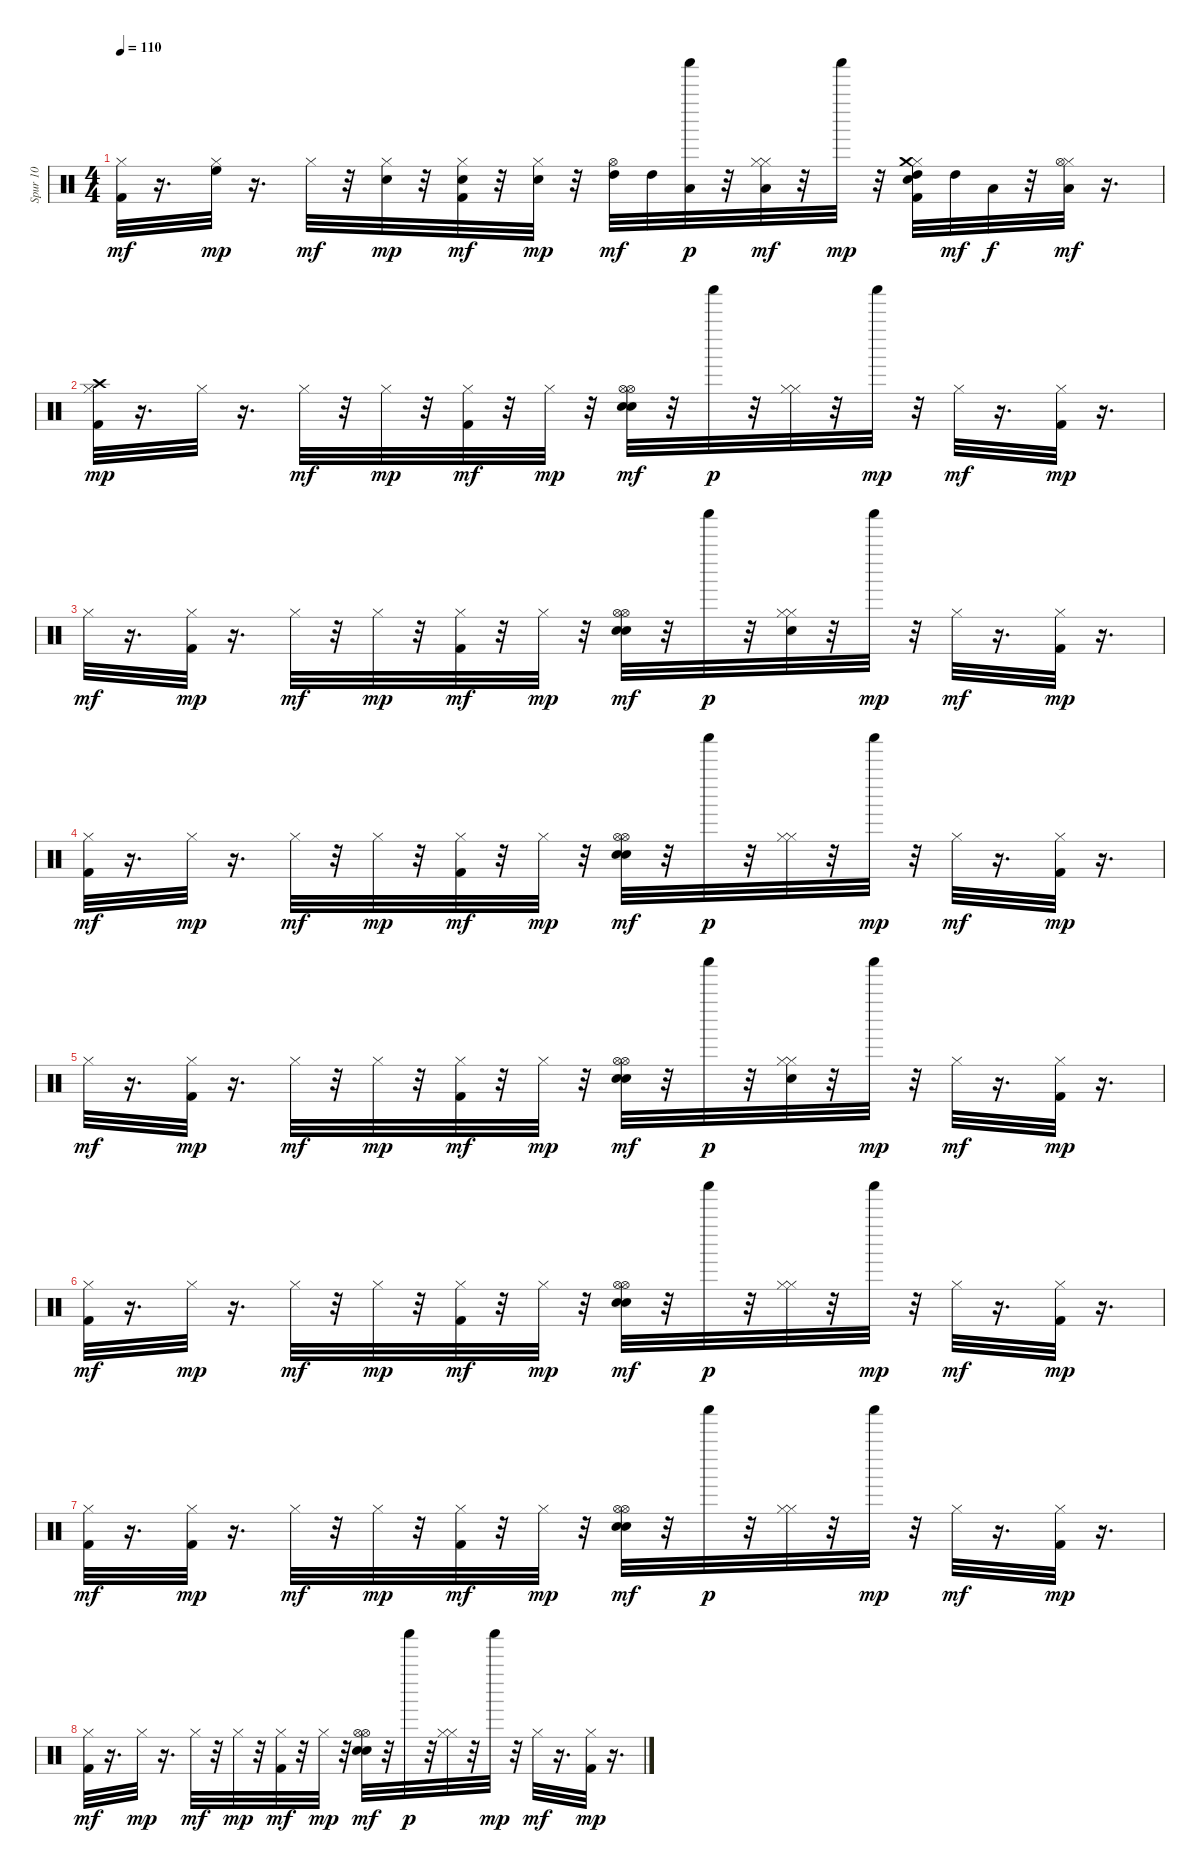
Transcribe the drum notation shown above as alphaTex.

\track ("Spur 10" "Spur 10") {instrument percussion}
\staff {score}
\articulation defaults
\ts (4 4)
\tempo 110
\clef neutral
\ks c
("Kick (hit) 2" "Hi-Hat (closed)").32{dy mf} r.16{d} ("Hi-Hat (closed)" "High Floor Tom (hit)").32{dy mp} r.16{d} "Hi-Hat (closed)".32{dy mf} r.32 ("Snare (hit) 2" "Hi-Hat (closed)").32{dy mp} r.32 ("Kick (hit) 2" "Snare (hit) 2" "Hi-Hat (closed)").32{dy mf} r.32 ("Snare (hit) 2" "Hi-Hat (closed)").32{dy mp} r.32 ("Hi-Hat (open)" "High Tom (hit)").32{dy mf} "High Tom (hit)".32 ("Low Tom (hit)" "Shaker (hit)").32{dy p} r.32 ("Hi-Hat (closed)" "Hi-Hat (closed)" "Low Floor Tom (hit)").32{dy mf} r.32 "Shaker (hit)".32{dy mp} r.32 ("Kick (hit) 2" "Snare (hit) 2" "Hi-Hat (closed)" "Crash medium (hit)" "High Tom (hit)").32 "High Tom (hit)".32{dy mf} "Low Tom (hit)".32{dy f} r.32 ("Hi-Hat (closed)" "Hi-Hat (open)" "Low Floor Tom (hit)").32{dy mf} r.16{d} |
("Kick (hit) 2" "Hi-Hat (closed)" "Crash high (hit)").32{dy mp} r.16{d} "Hi-Hat (closed)".32 r.16{d} "Hi-Hat (closed)".32{dy mf} r.32 "Hi-Hat (closed)".32{dy mp} r.32 ("Kick (hit) 2" "Hi-Hat (closed)").32{dy mf} r.32 "Hi-Hat (closed)".32{dy mp} r.32 ("Hi-Hat (open)" "Snare (hit) 2" "Electric Snare (hit)" "Hi-Hat (open)").32{dy mf} r.32 "Shaker (hit)".32{dy p} r.32 ("Hi-Hat (closed)" "Hi-Hat (closed)").32 r.32 "Shaker (hit)".32{dy mp} r.32 "Hi-Hat (closed)".32{dy mf} r.16{d} ("Kick (hit) 2" "Hi-Hat (closed)").32{dy mp} r.16{d} |
"Hi-Hat (closed)".32{dy mf} r.16{d} ("Kick (hit) 2" "Hi-Hat (closed)").32{dy mp} r.16{d} "Hi-Hat (closed)".32{dy mf} r.32 "Hi-Hat (closed)".32{dy mp} r.32 ("Kick (hit) 2" "Hi-Hat (closed)").32{dy mf} r.32 "Hi-Hat (closed)".32{dy mp} r.32 ("Hi-Hat (open)" "Snare (hit) 2" "Electric Snare (hit)" "Hi-Hat (open)").32{dy mf} r.32 "Shaker (hit)".32{dy p} r.32 ("Snare (hit) 2" "Hi-Hat (closed)" "Hi-Hat (closed)").32 r.32 "Shaker (hit)".32{dy mp} r.32 "Hi-Hat (closed)".32{dy mf} r.16{d} ("Kick (hit) 2" "Hi-Hat (closed)").32{dy mp} r.16{d} |
("Kick (hit) 2" "Hi-Hat (closed)").32{dy mf} r.16{d} "Hi-Hat (closed)".32{dy mp} r.16{d} "Hi-Hat (closed)".32{dy mf} r.32 "Hi-Hat (closed)".32{dy mp} r.32 ("Kick (hit) 2" "Hi-Hat (closed)").32{dy mf} r.32 "Hi-Hat (closed)".32{dy mp} r.32 ("Hi-Hat (open)" "Snare (hit) 2" "Electric Snare (hit)" "Hi-Hat (open)").32{dy mf} r.32 "Shaker (hit)".32{dy p} r.32 ("Hi-Hat (closed)" "Hi-Hat (closed)").32 r.32 "Shaker (hit)".32{dy mp} r.32 "Hi-Hat (closed)".32{dy mf} r.16{d} ("Kick (hit) 2" "Hi-Hat (closed)").32{dy mp} r.16{d} |
"Hi-Hat (closed)".32{dy mf} r.16{d} ("Kick (hit) 2" "Hi-Hat (closed)").32{dy mp} r.16{d} "Hi-Hat (closed)".32{dy mf} r.32 "Hi-Hat (closed)".32{dy mp} r.32 ("Kick (hit) 2" "Hi-Hat (closed)").32{dy mf} r.32 "Hi-Hat (closed)".32{dy mp} r.32 ("Hi-Hat (open)" "Snare (hit) 2" "Electric Snare (hit)" "Hi-Hat (open)").32{dy mf} r.32 "Shaker (hit)".32{dy p} r.32 ("Snare (hit) 2" "Hi-Hat (closed)" "Hi-Hat (closed)").32 r.32 "Shaker (hit)".32{dy mp} r.32 "Hi-Hat (closed)".32{dy mf} r.16{d} ("Kick (hit) 2" "Hi-Hat (closed)").32{dy mp} r.16{d} |
("Kick (hit) 2" "Hi-Hat (closed)").32{dy mf} r.16{d} "Hi-Hat (closed)".32{dy mp} r.16{d} "Hi-Hat (closed)".32{dy mf} r.32 "Hi-Hat (closed)".32{dy mp} r.32 ("Kick (hit) 2" "Hi-Hat (closed)").32{dy mf} r.32 "Hi-Hat (closed)".32{dy mp} r.32 ("Hi-Hat (open)" "Snare (hit) 2" "Electric Snare (hit)" "Hi-Hat (open)").32{dy mf} r.32 "Shaker (hit)".32{dy p} r.32 ("Hi-Hat (closed)" "Hi-Hat (closed)").32 r.32 "Shaker (hit)".32{dy mp} r.32 "Hi-Hat (closed)".32{dy mf} r.16{d} ("Kick (hit) 2" "Hi-Hat (closed)").32{dy mp} r.16{d} |
("Kick (hit) 2" "Hi-Hat (closed)").32{dy mf} r.16{d} ("Kick (hit) 2" "Hi-Hat (closed)").32{dy mp} r.16{d} "Hi-Hat (closed)".32{dy mf} r.32 "Hi-Hat (closed)".32{dy mp} r.32 ("Kick (hit) 2" "Hi-Hat (closed)").32{dy mf} r.32 "Hi-Hat (closed)".32{dy mp} r.32 ("Hi-Hat (open)" "Snare (hit) 2" "Electric Snare (hit)" "Hi-Hat (open)").32{dy mf} r.32 "Shaker (hit)".32{dy p} r.32 ("Hi-Hat (closed)" "Hi-Hat (closed)").32 r.32 "Shaker (hit)".32{dy mp} r.32 "Hi-Hat (closed)".32{dy mf} r.16{d} ("Kick (hit) 2" "Hi-Hat (closed)").32{dy mp} r.16{d} |
("Kick (hit) 2" "Hi-Hat (closed)").32{dy mf} r.16{d} "Hi-Hat (closed)".32{dy mp} r.16{d} "Hi-Hat (closed)".32{dy mf} r.32 "Hi-Hat (closed)".32{dy mp} r.32 ("Kick (hit) 2" "Hi-Hat (closed)").32{dy mf} r.32 "Hi-Hat (closed)".32{dy mp} r.32 ("Hi-Hat (open)" "Snare (hit) 2" "Electric Snare (hit)" "Hi-Hat (open)").32{dy mf} r.32 "Shaker (hit)".32{dy p} r.32 ("Hi-Hat (closed)" "Hi-Hat (closed)").32 r.32 "Shaker (hit)".32{dy mp} r.32 "Hi-Hat (closed)".32{dy mf} r.16{d} ("Kick (hit) 2" "Hi-Hat (closed)").32{dy mp} r.16{d}
